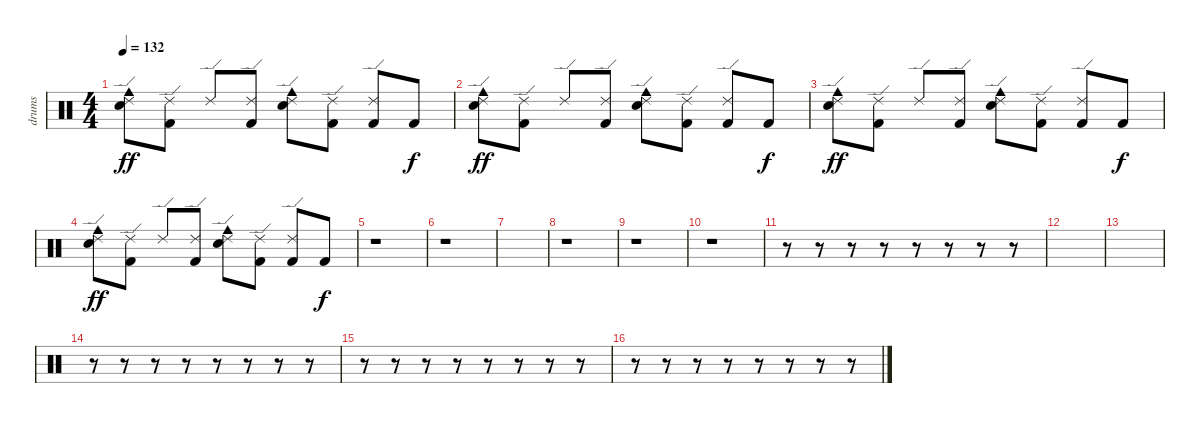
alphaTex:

\track ("drums" "drums") {instrument percussion}
\staff {score}
\articulation defaults
\ts (4 4)
\tempo 132
\clef neutral
\ks c
("Cowbell medium (hit)" "Electric Snare (hit)" "Ride (edge) 2").8{dy ff} ("Kick (hit) 2" "Ride (edge) 2").8 "Ride (edge) 2".8 ("Ride (edge) 2" "Kick (hit) 2").8 ("Cowbell medium (hit)" "Electric Snare (hit)" "Ride (edge) 2").8 ("Kick (hit) 2" "Ride (edge) 2").8 ("Ride (edge) 2" "Kick (hit) 2").8 "Kick (hit) 2".8{dy f} |
("Cowbell medium (hit)" "Electric Snare (hit)" "Ride (edge) 2").8{dy ff} ("Kick (hit) 2" "Ride (edge) 2").8 "Ride (edge) 2".8 ("Ride (edge) 2" "Kick (hit) 2").8 ("Cowbell medium (hit)" "Electric Snare (hit)" "Ride (edge) 2").8 ("Kick (hit) 2" "Ride (edge) 2").8 ("Ride (edge) 2" "Kick (hit) 2").8 "Kick (hit) 2".8{dy f} |
("Cowbell medium (hit)" "Electric Snare (hit)" "Ride (edge) 2").8{dy ff} ("Kick (hit) 2" "Ride (edge) 2").8 "Ride (edge) 2".8 ("Ride (edge) 2" "Kick (hit) 2").8 ("Cowbell medium (hit)" "Electric Snare (hit)" "Ride (edge) 2").8 ("Kick (hit) 2" "Ride (edge) 2").8 ("Ride (edge) 2" "Kick (hit) 2").8 "Kick (hit) 2".8{dy f} |
("Cowbell medium (hit)" "Electric Snare (hit)" "Ride (edge) 2").8{dy ff} ("Kick (hit) 2" "Ride (edge) 2").8 "Ride (edge) 2".8 ("Ride (edge) 2" "Kick (hit) 2").8 ("Cowbell medium (hit)" "Electric Snare (hit)" "Ride (edge) 2").8 ("Kick (hit) 2" "Ride (edge) 2").8 ("Ride (edge) 2" "Kick (hit) 2").8 "Kick (hit) 2".8{dy f} |
r.1 |
r.1 |
|
r.1 |
r.1 |
r.1 |
r.8 r.8 r.8 r.8 r.8 r.8 r.8 r.8 |
|
|
r.8 r.8 r.8 r.8 r.8 r.8 r.8 r.8 |
r.8 r.8 r.8 r.8 r.8 r.8 r.8 r.8 |
r.8 r.8 r.8 r.8 r.8 r.8 r.8 r.8
